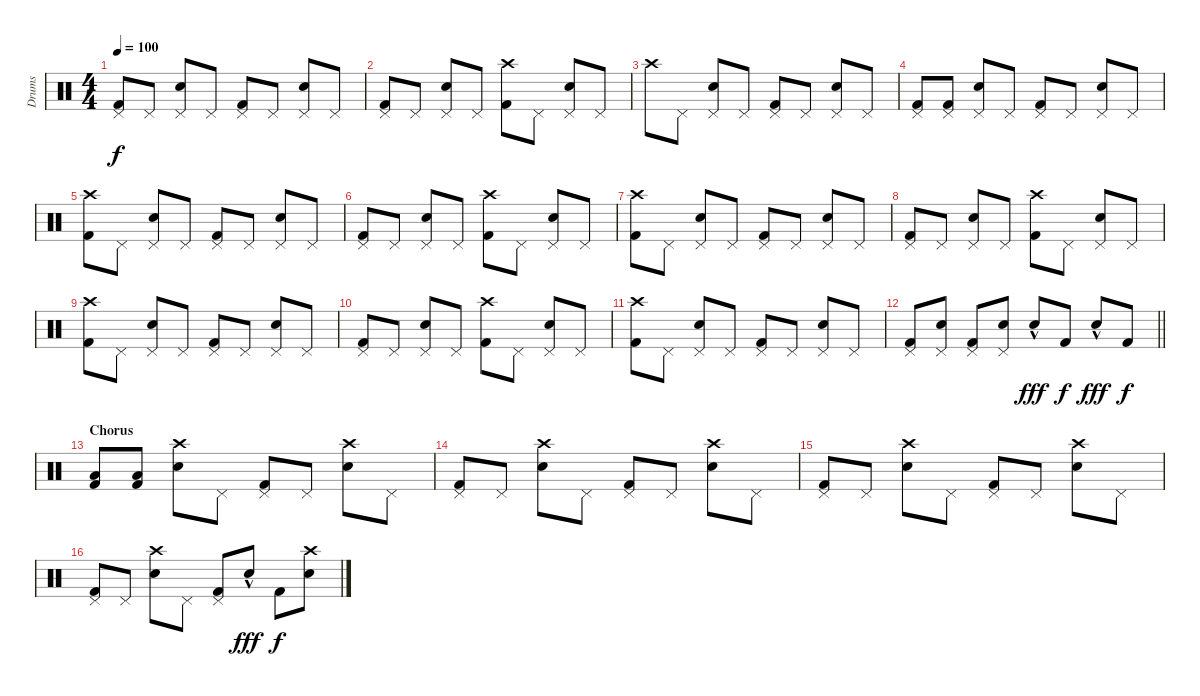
\track ("Drums" "Drums") {instrument percussion}
\staff {score}
\articulation defaults
\ts (4 4)
\tempo 100
\clef neutral
\ks c
("Pedal Hi-Hat (hit)" "Kick (hit) 2").8{dy f} "Pedal Hi-Hat (hit)".8 ("Pedal Hi-Hat (hit)" "Electric Snare (hit)").8 "Pedal Hi-Hat (hit)".8 ("Pedal Hi-Hat (hit)" "Kick (hit) 2").8 "Pedal Hi-Hat (hit)".8 ("Pedal Hi-Hat (hit)" "Electric Snare (hit)").8 "Pedal Hi-Hat (hit)".8 |
("Pedal Hi-Hat (hit)" "Kick (hit) 2").8 "Pedal Hi-Hat (hit)".8 ("Pedal Hi-Hat (hit)" "Electric Snare (hit)").8 "Pedal Hi-Hat (hit)".8 ("Crash high (hit)" "Kick (hit) 2").8 "Pedal Hi-Hat (hit)".8 ("Pedal Hi-Hat (hit)" "Electric Snare (hit)").8 "Pedal Hi-Hat (hit)".8 |
"Crash high (hit)".8 "Pedal Hi-Hat (hit)".8 ("Pedal Hi-Hat (hit)" "Electric Snare (hit)").8 "Pedal Hi-Hat (hit)".8 ("Pedal Hi-Hat (hit)" "Kick (hit) 2").8 "Pedal Hi-Hat (hit)".8 ("Pedal Hi-Hat (hit)" "Electric Snare (hit)").8 "Pedal Hi-Hat (hit)".8 |
("Pedal Hi-Hat (hit)" "Kick (hit) 2").8 ("Pedal Hi-Hat (hit)" "Kick (hit) 2").8 ("Pedal Hi-Hat (hit)" "Electric Snare (hit)").8 "Pedal Hi-Hat (hit)".8 ("Pedal Hi-Hat (hit)" "Kick (hit) 2").8 "Pedal Hi-Hat (hit)".8 ("Pedal Hi-Hat (hit)" "Electric Snare (hit)").8 "Pedal Hi-Hat (hit)".8 |
("Crash high (hit)" "Kick (hit) 2").8 "Pedal Hi-Hat (hit)".8 ("Pedal Hi-Hat (hit)" "Electric Snare (hit)").8 "Pedal Hi-Hat (hit)".8 ("Pedal Hi-Hat (hit)" "Kick (hit) 2").8 "Pedal Hi-Hat (hit)".8 ("Pedal Hi-Hat (hit)" "Electric Snare (hit)").8 "Pedal Hi-Hat (hit)".8 |
("Pedal Hi-Hat (hit)" "Kick (hit) 2").8 "Pedal Hi-Hat (hit)".8 ("Pedal Hi-Hat (hit)" "Electric Snare (hit)").8 "Pedal Hi-Hat (hit)".8 ("Crash high (hit)" "Kick (hit) 2").8 "Pedal Hi-Hat (hit)".8 ("Pedal Hi-Hat (hit)" "Electric Snare (hit)").8 "Pedal Hi-Hat (hit)".8 |
("Crash high (hit)" "Kick (hit) 2").8 "Pedal Hi-Hat (hit)".8 ("Pedal Hi-Hat (hit)" "Electric Snare (hit)").8 "Pedal Hi-Hat (hit)".8 ("Pedal Hi-Hat (hit)" "Kick (hit) 2").8 "Pedal Hi-Hat (hit)".8 ("Pedal Hi-Hat (hit)" "Electric Snare (hit)").8 "Pedal Hi-Hat (hit)".8 |
("Pedal Hi-Hat (hit)" "Kick (hit) 2").8 "Pedal Hi-Hat (hit)".8 ("Pedal Hi-Hat (hit)" "Electric Snare (hit)").8 "Pedal Hi-Hat (hit)".8 ("Crash high (hit)" "Kick (hit) 2").8 "Pedal Hi-Hat (hit)".8 ("Pedal Hi-Hat (hit)" "Electric Snare (hit)").8 "Pedal Hi-Hat (hit)".8 |
("Crash high (hit)" "Kick (hit) 2").8 "Pedal Hi-Hat (hit)".8 ("Pedal Hi-Hat (hit)" "Electric Snare (hit)").8 "Pedal Hi-Hat (hit)".8 ("Pedal Hi-Hat (hit)" "Kick (hit) 2").8 "Pedal Hi-Hat (hit)".8 ("Pedal Hi-Hat (hit)" "Electric Snare (hit)").8 "Pedal Hi-Hat (hit)".8 |
("Pedal Hi-Hat (hit)" "Kick (hit) 2").8 "Pedal Hi-Hat (hit)".8 ("Pedal Hi-Hat (hit)" "Electric Snare (hit)").8 "Pedal Hi-Hat (hit)".8 ("Crash high (hit)" "Kick (hit) 2").8 "Pedal Hi-Hat (hit)".8 ("Pedal Hi-Hat (hit)" "Electric Snare (hit)").8 "Pedal Hi-Hat (hit)".8 |
("Crash high (hit)" "Kick (hit) 2").8 "Pedal Hi-Hat (hit)".8 ("Pedal Hi-Hat (hit)" "Electric Snare (hit)").8 "Pedal Hi-Hat (hit)".8 ("Pedal Hi-Hat (hit)" "Kick (hit) 2").8 "Pedal Hi-Hat (hit)".8 ("Pedal Hi-Hat (hit)" "Electric Snare (hit)").8 "Pedal Hi-Hat (hit)".8 |
\barLineRight lightlight
("Pedal Hi-Hat (hit)" "Kick (hit) 2").8 ("Pedal Hi-Hat (hit)" "Electric Snare (hit)").8 ("Pedal Hi-Hat (hit)" "Kick (hit) 2").8 ("Pedal Hi-Hat (hit)" "Electric Snare (hit)").8 "Electric Snare (hit)"{hac}.8{dy fff} "Kick (hit) 2".8{dy f} "Electric Snare (hit)"{hac}.8{dy fff} "Kick (hit) 2".8{dy f} |
\section ("" "Chorus")
("Kick (hit) 2" "Low Floor Tom (hit)").8 ("Kick (hit) 2" "Low Floor Tom (hit)").8 ("Crash high (hit)" "Electric Snare (hit)").8 "Pedal Hi-Hat (hit)".8 ("Pedal Hi-Hat (hit)" "Kick (hit) 2").8 "Pedal Hi-Hat (hit)".8 ("Crash high (hit)" "Electric Snare (hit)").8 "Pedal Hi-Hat (hit)".8 |
("Pedal Hi-Hat (hit)" "Kick (hit) 2").8 "Pedal Hi-Hat (hit)".8 ("Crash high (hit)" "Electric Snare (hit)").8 "Pedal Hi-Hat (hit)".8 ("Pedal Hi-Hat (hit)" "Kick (hit) 2").8 "Pedal Hi-Hat (hit)".8 ("Crash high (hit)" "Electric Snare (hit)").8 "Pedal Hi-Hat (hit)".8 |
("Pedal Hi-Hat (hit)" "Kick (hit) 2").8 "Pedal Hi-Hat (hit)".8 ("Crash high (hit)" "Electric Snare (hit)").8 "Pedal Hi-Hat (hit)".8 ("Pedal Hi-Hat (hit)" "Kick (hit) 2").8 "Pedal Hi-Hat (hit)".8 ("Crash high (hit)" "Electric Snare (hit)").8 "Pedal Hi-Hat (hit)".8 |
("Pedal Hi-Hat (hit)" "Kick (hit) 2").8 "Pedal Hi-Hat (hit)".8 ("Crash high (hit)" "Electric Snare (hit)").8 "Pedal Hi-Hat (hit)".8 ("Pedal Hi-Hat (hit)" "Kick (hit) 2").8 "Electric Snare (hit)"{hac}.8{dy fff} "Kick (hit) 2".8{dy f} ("Crash high (hit)" "Electric Snare (hit)").8
